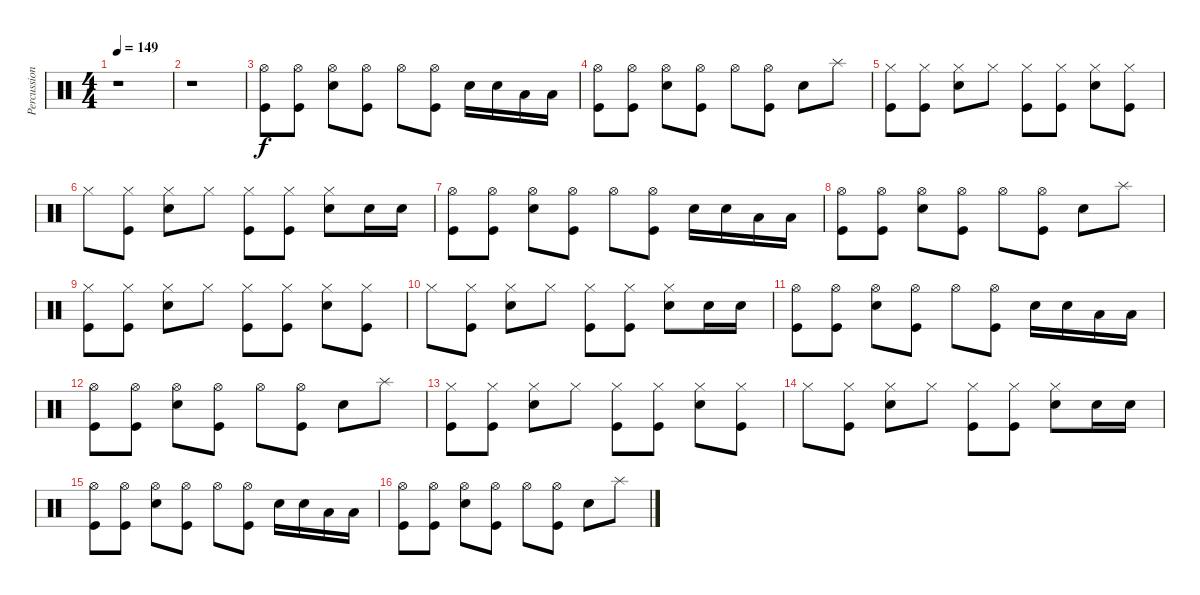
\track ("Percussion" "Percussion") {instrument percussion}
\staff {score}
\articulation defaults
\ts (4 4)
\tempo 149
\clef neutral
\ks c
r.1{dy f} |
r.1 |
("Hi-Hat (open)" "Kick (hit)").8 ("Hi-Hat (open)" "Kick (hit)").8 ("Hi-Hat (open)" "Snare (hit) 2").8 ("Hi-Hat (open)" "Kick (hit)").8 "Hi-Hat (open)".8 ("Hi-Hat (open)" "Kick (hit)").8 "Snare (hit) 2".16 "Snare (hit) 2".16 "Low Tom (hit)".16 "Low Tom (hit)".16 |
("Hi-Hat (open)" "Kick (hit)").8 ("Hi-Hat (open)" "Kick (hit)").8 ("Hi-Hat (open)" "Snare (hit) 2").8 ("Hi-Hat (open)" "Kick (hit)").8 "Hi-Hat (open)".8 ("Hi-Hat (open)" "Kick (hit)").8 "Snare (hit) 2".8 "Splash (hit)".8 |
("Hi-Hat (closed)" "Kick (hit)").8 ("Hi-Hat (closed)" "Kick (hit)").8 ("Hi-Hat (closed)" "Snare (hit) 2").8 "Hi-Hat (closed)".8 ("Hi-Hat (closed)" "Kick (hit)").8 ("Hi-Hat (closed)" "Kick (hit)").8 ("Hi-Hat (closed)" "Snare (hit) 2").8 ("Hi-Hat (closed)" "Kick (hit)").8 |
"Hi-Hat (closed)".8 ("Hi-Hat (closed)" "Kick (hit)").8 ("Hi-Hat (closed)" "Snare (hit) 2").8 "Hi-Hat (closed)".8 ("Hi-Hat (closed)" "Kick (hit)").8 ("Hi-Hat (closed)" "Kick (hit)").8 ("Hi-Hat (closed)" "Snare (hit) 2").8 "Snare (hit) 2".16 "Snare (hit) 2".16 |
("Hi-Hat (open)" "Kick (hit)").8 ("Hi-Hat (open)" "Kick (hit)").8 ("Hi-Hat (open)" "Snare (hit) 2").8 ("Hi-Hat (open)" "Kick (hit)").8 "Hi-Hat (open)".8 ("Hi-Hat (open)" "Kick (hit)").8 "Snare (hit) 2".16 "Snare (hit) 2".16 "Low Tom (hit)".16 "Low Tom (hit)".16 |
("Hi-Hat (open)" "Kick (hit)").8 ("Hi-Hat (open)" "Kick (hit)").8 ("Hi-Hat (open)" "Snare (hit) 2").8 ("Hi-Hat (open)" "Kick (hit)").8 "Hi-Hat (open)".8 ("Hi-Hat (open)" "Kick (hit)").8 "Snare (hit) 2".8 "Splash (hit)".8 |
("Hi-Hat (closed)" "Kick (hit)").8 ("Hi-Hat (closed)" "Kick (hit)").8 ("Hi-Hat (closed)" "Snare (hit) 2").8 "Hi-Hat (closed)".8 ("Hi-Hat (closed)" "Kick (hit)").8 ("Hi-Hat (closed)" "Kick (hit)").8 ("Hi-Hat (closed)" "Snare (hit) 2").8 ("Hi-Hat (closed)" "Kick (hit)").8 |
"Hi-Hat (closed)".8 ("Hi-Hat (closed)" "Kick (hit)").8 ("Hi-Hat (closed)" "Snare (hit) 2").8 "Hi-Hat (closed)".8 ("Hi-Hat (closed)" "Kick (hit)").8 ("Hi-Hat (closed)" "Kick (hit)").8 ("Hi-Hat (closed)" "Snare (hit) 2").8 "Snare (hit) 2".16 "Snare (hit) 2".16 |
("Hi-Hat (open)" "Kick (hit)").8 ("Hi-Hat (open)" "Kick (hit)").8 ("Hi-Hat (open)" "Snare (hit) 2").8 ("Hi-Hat (open)" "Kick (hit)").8 "Hi-Hat (open)".8 ("Hi-Hat (open)" "Kick (hit)").8 "Snare (hit) 2".16 "Snare (hit) 2".16 "Low Tom (hit)".16 "Low Tom (hit)".16 |
("Hi-Hat (open)" "Kick (hit)").8 ("Hi-Hat (open)" "Kick (hit)").8 ("Hi-Hat (open)" "Snare (hit) 2").8 ("Hi-Hat (open)" "Kick (hit)").8 "Hi-Hat (open)".8 ("Hi-Hat (open)" "Kick (hit)").8 "Snare (hit) 2".8 "Splash (hit)".8 |
("Hi-Hat (closed)" "Kick (hit)").8 ("Hi-Hat (closed)" "Kick (hit)").8 ("Hi-Hat (closed)" "Snare (hit) 2").8 "Hi-Hat (closed)".8 ("Hi-Hat (closed)" "Kick (hit)").8 ("Hi-Hat (closed)" "Kick (hit)").8 ("Hi-Hat (closed)" "Snare (hit) 2").8 ("Hi-Hat (closed)" "Kick (hit)").8 |
"Hi-Hat (closed)".8 ("Hi-Hat (closed)" "Kick (hit)").8 ("Hi-Hat (closed)" "Snare (hit) 2").8 "Hi-Hat (closed)".8 ("Hi-Hat (closed)" "Kick (hit)").8 ("Hi-Hat (closed)" "Kick (hit)").8 ("Hi-Hat (closed)" "Snare (hit) 2").8 "Snare (hit) 2".16 "Snare (hit) 2".16 |
("Hi-Hat (open)" "Kick (hit)").8 ("Hi-Hat (open)" "Kick (hit)").8 ("Hi-Hat (open)" "Snare (hit) 2").8 ("Hi-Hat (open)" "Kick (hit)").8 "Hi-Hat (open)".8 ("Hi-Hat (open)" "Kick (hit)").8 "Snare (hit) 2".16 "Snare (hit) 2".16 "Low Tom (hit)".16 "Low Tom (hit)".16 |
("Hi-Hat (open)" "Kick (hit)").8 ("Hi-Hat (open)" "Kick (hit)").8 ("Hi-Hat (open)" "Snare (hit) 2").8 ("Hi-Hat (open)" "Kick (hit)").8 "Hi-Hat (open)".8 ("Hi-Hat (open)" "Kick (hit)").8 "Snare (hit) 2".8 "Splash (hit)".8
